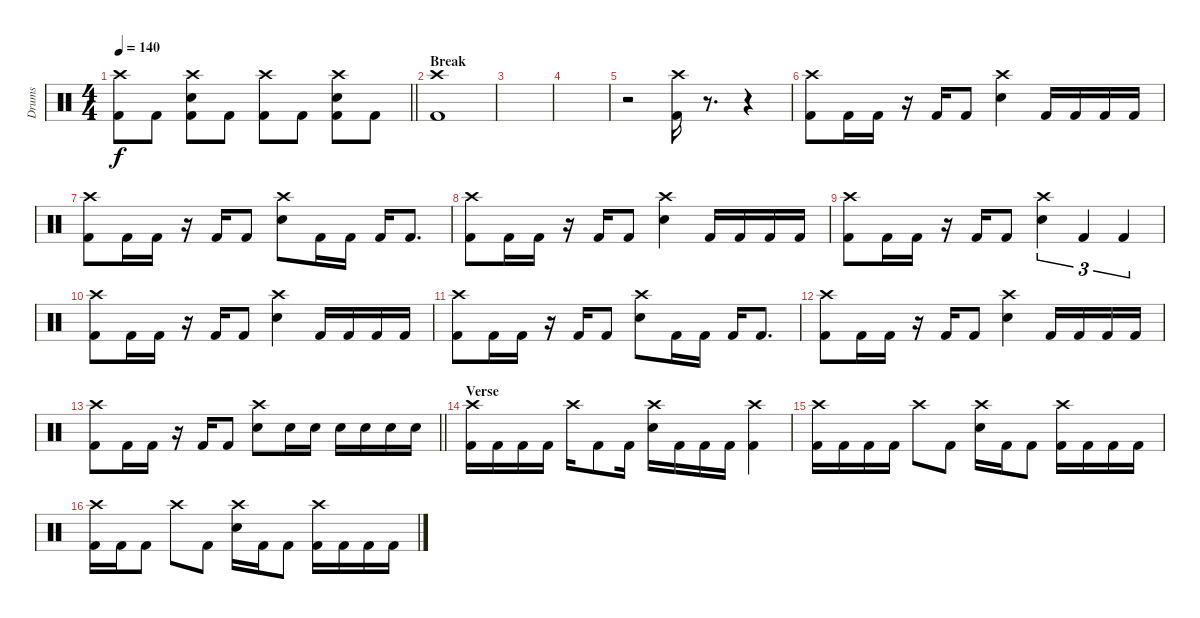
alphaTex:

\track ("Drums" "Drums") {instrument percussion}
\staff {score}
\articulation defaults
\ts (4 4)
\tempo 140
\clef neutral
\barLineRight lightlight
\ks c
("Crash high (hit)" "Kick (hit) 2").8{dy f} "Kick (hit) 2".8 ("Crash high (hit)" "Electric Snare (hit)" "Kick (hit) 2").8 "Kick (hit) 2".8 ("Crash high (hit)" "Kick (hit) 2").8 "Kick (hit) 2".8 ("Crash high (hit)" "Electric Snare (hit)" "Kick (hit) 2").8 "Kick (hit) 2".8 |
\section ("" "Break")
("Crash high (hit)" "Kick (hit) 2").1 |
|
|
r.2 ("Crash high (hit)" "Kick (hit) 2").16 r.8{d} r.4 |
("Crash high (hit)" "Kick (hit) 2").8 "Kick (hit) 2".16 "Kick (hit) 2".16 r.16 "Kick (hit) 2".16 "Kick (hit) 2".8 ("Crash high (hit)" "Electric Snare (hit)").4 "Kick (hit) 2".16 "Kick (hit) 2".16 "Kick (hit) 2".16 "Kick (hit) 2".16 |
("Crash high (hit)" "Kick (hit) 2").8 "Kick (hit) 2".16 "Kick (hit) 2".16 r.16 "Kick (hit) 2".16 "Kick (hit) 2".8 ("Crash high (hit)" "Electric Snare (hit)").8 "Kick (hit) 2".16 "Kick (hit) 2".16 "Kick (hit) 2".16 "Kick (hit) 2".8{d} |
("Crash high (hit)" "Kick (hit) 2").8 "Kick (hit) 2".16 "Kick (hit) 2".16 r.16 "Kick (hit) 2".16 "Kick (hit) 2".8 ("Crash high (hit)" "Electric Snare (hit)").4 "Kick (hit) 2".16 "Kick (hit) 2".16 "Kick (hit) 2".16 "Kick (hit) 2".16 |
("Crash high (hit)" "Kick (hit) 2").8 "Kick (hit) 2".16 "Kick (hit) 2".16 r.16 "Kick (hit) 2".16 "Kick (hit) 2".8 ("Crash high (hit)" "Electric Snare (hit)").4{tu (3 2)} "Kick (hit) 2".4{tu (3 2)} "Kick (hit) 2".4{tu (3 2)} |
("Crash high (hit)" "Kick (hit) 2").8 "Kick (hit) 2".16 "Kick (hit) 2".16 r.16 "Kick (hit) 2".16 "Kick (hit) 2".8 ("Crash high (hit)" "Electric Snare (hit)").4 "Kick (hit) 2".16 "Kick (hit) 2".16 "Kick (hit) 2".16 "Kick (hit) 2".16 |
("Crash high (hit)" "Kick (hit) 2").8 "Kick (hit) 2".16 "Kick (hit) 2".16 r.16 "Kick (hit) 2".16 "Kick (hit) 2".8 ("Crash high (hit)" "Electric Snare (hit)").8 "Kick (hit) 2".16 "Kick (hit) 2".16 "Kick (hit) 2".16 "Kick (hit) 2".8{d} |
("Crash high (hit)" "Kick (hit) 2").8 "Kick (hit) 2".16 "Kick (hit) 2".16 r.16 "Kick (hit) 2".16 "Kick (hit) 2".8 ("Crash high (hit)" "Electric Snare (hit)").4 "Kick (hit) 2".16 "Kick (hit) 2".16 "Kick (hit) 2".16 "Kick (hit) 2".16 |
\barLineRight lightlight
("Crash high (hit)" "Kick (hit) 2").8 "Kick (hit) 2".16 "Kick (hit) 2".16 r.16 "Kick (hit) 2".16 "Kick (hit) 2".8 ("Crash high (hit)" "Electric Snare (hit)").8 "Electric Snare (hit)".16 "Electric Snare (hit)".16 "Electric Snare (hit)".16 "Electric Snare (hit)".16 "Electric Snare (hit)".16 "Electric Snare (hit)".16 |
\section ("" "Verse")
("Crash high (hit)" "Kick (hit) 2").16 "Kick (hit) 2".16 "Kick (hit) 2".16 "Kick (hit) 2".16 "Crash high (hit)".16 "Kick (hit) 2".8 "Kick (hit) 2".16 ("Crash high (hit)" "Electric Snare (hit)").16 "Kick (hit) 2".16 "Kick (hit) 2".16 "Kick (hit) 2".16 ("Crash high (hit)" "Kick (hit) 2").4 |
("Crash high (hit)" "Kick (hit) 2").16 "Kick (hit) 2".16 "Kick (hit) 2".16 "Kick (hit) 2".16 "Crash high (hit)".8 "Kick (hit) 2".8 ("Crash high (hit)" "Electric Snare (hit)").16 "Kick (hit) 2".16 "Kick (hit) 2".8 ("Crash high (hit)" "Kick (hit) 2").16 "Kick (hit) 2".16 "Kick (hit) 2".16 "Kick (hit) 2".16 |
("Crash high (hit)" "Kick (hit) 2").16 "Kick (hit) 2".16 "Kick (hit) 2".8 "Crash high (hit)".8 "Kick (hit) 2".8 ("Crash high (hit)" "Electric Snare (hit)").16 "Kick (hit) 2".16 "Kick (hit) 2".8 ("Crash high (hit)" "Kick (hit) 2").16 "Kick (hit) 2".16 "Kick (hit) 2".16 "Kick (hit) 2".16
